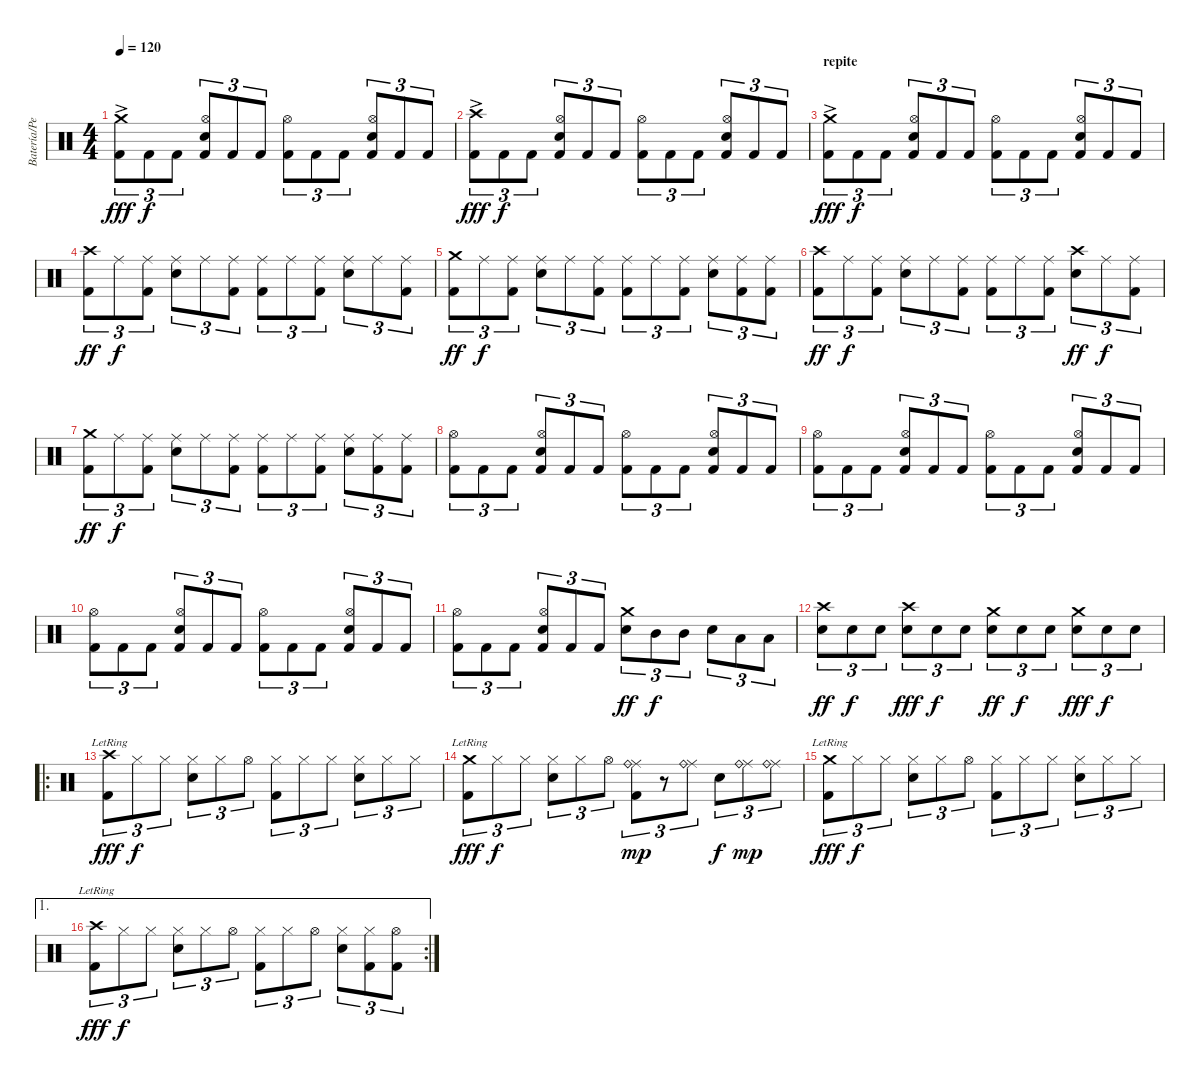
\track ("Batería/Perc." "Batería/Pe") {instrument percussion}
\staff {score}
\articulation defaults
\ts (4 4)
\tempo 120
\clef neutral
\ks c
("Crash medium (hit)"{ac} "Kick (hit) 2").8{tu (3 2) dy fff} "Kick (hit) 2".8{tu (3 2) dy f} "Kick (hit) 2".8{tu (3 2)} ("Hi-Hat (open)" "Kick (hit) 2" "Snare (hit) 2").8{tu (3 2)} "Kick (hit) 2".8{tu (3 2)} "Kick (hit) 2".8{tu (3 2)} ("Hi-Hat (open)" "Kick (hit) 2").8{tu (3 2)} "Kick (hit) 2".8{tu (3 2)} "Kick (hit) 2".8{tu (3 2)} ("Hi-Hat (open)" "Kick (hit) 2" "Snare (hit) 2").8{tu (3 2)} "Kick (hit) 2".8{tu (3 2)} "Kick (hit) 2".8{tu (3 2)} |
("Crash high (hit)"{ac} "Kick (hit) 2").8{tu (3 2) dy fff} "Kick (hit) 2".8{tu (3 2) dy f} "Kick (hit) 2".8{tu (3 2)} ("Hi-Hat (open)" "Kick (hit) 2" "Snare (hit) 2").8{tu (3 2)} "Kick (hit) 2".8{tu (3 2)} "Kick (hit) 2".8{tu (3 2)} ("Hi-Hat (open)" "Kick (hit) 2").8{tu (3 2)} "Kick (hit) 2".8{tu (3 2)} "Kick (hit) 2".8{tu (3 2)} ("Hi-Hat (open)" "Kick (hit) 2" "Snare (hit) 2").8{tu (3 2)} "Kick (hit) 2".8{tu (3 2)} "Kick (hit) 2".8{tu (3 2)} |
\section ("" "repite")
("Crash medium (hit)"{ac} "Kick (hit) 2").8{tu (3 2) dy fff} "Kick (hit) 2".8{tu (3 2) dy f} "Kick (hit) 2".8{tu (3 2)} ("Hi-Hat (open)" "Kick (hit) 2" "Snare (hit) 2").8{tu (3 2)} "Kick (hit) 2".8{tu (3 2)} "Kick (hit) 2".8{tu (3 2)} ("Hi-Hat (open)" "Kick (hit) 2").8{tu (3 2)} "Kick (hit) 2".8{tu (3 2)} "Kick (hit) 2".8{tu (3 2)} ("Hi-Hat (open)" "Kick (hit) 2" "Snare (hit) 2").8{tu (3 2)} "Kick (hit) 2".8{tu (3 2)} "Kick (hit) 2".8{tu (3 2)} |
("Crash high (hit)" "Kick (hit) 2").8{tu (3 2) dy ff} "Ride (middle)".8{tu (3 2) dy f} ("Ride (middle)" "Kick (hit) 2").8{tu (3 2)} ("Ride (middle)" "Snare (hit) 2").8{tu (3 2)} "Ride (middle)".8{tu (3 2)} ("Ride (middle)" "Kick (hit) 2").8{tu (3 2)} ("Ride (middle)" "Kick (hit) 2").8{tu (3 2)} "Ride (middle)".8{tu (3 2)} ("Ride (middle)" "Kick (hit) 2").8{tu (3 2)} ("Ride (middle)" "Snare (hit) 2").8{tu (3 2)} "Ride (middle)".8{tu (3 2)} ("Ride (middle)" "Kick (hit) 2").8{tu (3 2)} |
("Crash medium (hit)" "Kick (hit) 2").8{tu (3 2) dy ff} "Ride (middle)".8{tu (3 2) dy f} ("Ride (middle)" "Kick (hit) 2").8{tu (3 2)} ("Ride (middle)" "Snare (hit) 2").8{tu (3 2)} "Ride (middle)".8{tu (3 2)} ("Ride (middle)" "Kick (hit) 2").8{tu (3 2)} ("Ride (middle)" "Kick (hit) 2").8{tu (3 2)} "Ride (middle)".8{tu (3 2)} ("Ride (middle)" "Kick (hit) 2").8{tu (3 2)} ("Ride (middle)" "Snare (hit) 2").8{tu (3 2)} ("Ride (middle)" "Kick (hit) 2").8{tu (3 2)} ("Ride (middle)" "Kick (hit) 2").8{tu (3 2)} |
("Crash high (hit)" "Kick (hit) 2").8{tu (3 2) dy ff} "Ride (middle)".8{tu (3 2) dy f} ("Ride (middle)" "Kick (hit) 2").8{tu (3 2)} ("Ride (middle)" "Snare (hit) 2").8{tu (3 2)} "Ride (middle)".8{tu (3 2)} ("Ride (middle)" "Kick (hit) 2").8{tu (3 2)} ("Ride (middle)" "Kick (hit) 2").8{tu (3 2)} "Ride (middle)".8{tu (3 2)} ("Ride (middle)" "Kick (hit) 2").8{tu (3 2)} ("Crash high (hit)" "Snare (hit) 2").8{tu (3 2) dy ff} "Ride (middle)".8{tu (3 2) dy f} ("Ride (middle)" "Kick (hit) 2").8{tu (3 2)} |
("Crash medium (hit)" "Kick (hit) 2").8{tu (3 2) dy ff} "Ride (middle)".8{tu (3 2) dy f} ("Ride (middle)" "Kick (hit) 2").8{tu (3 2)} ("Ride (middle)" "Snare (hit) 2").8{tu (3 2)} "Ride (middle)".8{tu (3 2)} ("Ride (middle)" "Kick (hit) 2").8{tu (3 2)} ("Ride (middle)" "Kick (hit) 2").8{tu (3 2)} "Ride (middle)".8{tu (3 2)} ("Ride (middle)" "Kick (hit) 2").8{tu (3 2)} ("Ride (middle)" "Snare (hit) 2").8{tu (3 2)} ("Ride (middle)" "Kick (hit) 2").8{tu (3 2)} ("Ride (middle)" "Kick (hit) 2").8{tu (3 2)} |
("Hi-Hat (open)" "Kick (hit) 2").8{tu (3 2)} "Kick (hit) 2".8{tu (3 2)} "Kick (hit) 2".8{tu (3 2)} ("Hi-Hat (open)" "Kick (hit) 2" "Snare (hit) 2").8{tu (3 2)} "Kick (hit) 2".8{tu (3 2)} "Kick (hit) 2".8{tu (3 2)} ("Hi-Hat (open)" "Kick (hit) 2").8{tu (3 2)} "Kick (hit) 2".8{tu (3 2)} "Kick (hit) 2".8{tu (3 2)} ("Hi-Hat (open)" "Kick (hit) 2" "Snare (hit) 2").8{tu (3 2)} "Kick (hit) 2".8{tu (3 2)} "Kick (hit) 2".8{tu (3 2)} |
("Hi-Hat (open)" "Kick (hit) 2").8{tu (3 2)} "Kick (hit) 2".8{tu (3 2)} "Kick (hit) 2".8{tu (3 2)} ("Hi-Hat (open)" "Kick (hit) 2" "Snare (hit) 2").8{tu (3 2)} "Kick (hit) 2".8{tu (3 2)} "Kick (hit) 2".8{tu (3 2)} ("Hi-Hat (open)" "Kick (hit) 2").8{tu (3 2)} "Kick (hit) 2".8{tu (3 2)} "Kick (hit) 2".8{tu (3 2)} ("Hi-Hat (open)" "Kick (hit) 2" "Snare (hit) 2").8{tu (3 2)} "Kick (hit) 2".8{tu (3 2)} "Kick (hit) 2".8{tu (3 2)} |
("Hi-Hat (open)" "Kick (hit) 2").8{tu (3 2)} "Kick (hit) 2".8{tu (3 2)} "Kick (hit) 2".8{tu (3 2)} ("Hi-Hat (open)" "Kick (hit) 2" "Snare (hit) 2").8{tu (3 2)} "Kick (hit) 2".8{tu (3 2)} "Kick (hit) 2".8{tu (3 2)} ("Hi-Hat (open)" "Kick (hit) 2").8{tu (3 2)} "Kick (hit) 2".8{tu (3 2)} "Kick (hit) 2".8{tu (3 2)} ("Hi-Hat (open)" "Kick (hit) 2" "Snare (hit) 2").8{tu (3 2)} "Kick (hit) 2".8{tu (3 2)} "Kick (hit) 2".8{tu (3 2)} |
("Hi-Hat (open)" "Kick (hit) 2").8{tu (3 2)} "Kick (hit) 2".8{tu (3 2)} "Kick (hit) 2".8{tu (3 2)} ("Hi-Hat (open)" "Kick (hit) 2" "Snare (hit) 2").8{tu (3 2)} "Kick (hit) 2".8{tu (3 2)} "Kick (hit) 2".8{tu (3 2)} ("Crash medium (hit)" "Snare (hit) 2").8{tu (3 2) dy ff} "Mid Tom (hit)".8{tu (3 2) dy f} "Mid Tom (hit)".8{tu (3 2)} "Snare (hit) 2".8{tu (3 2)} "Low Tom (hit)".8{tu (3 2)} "Low Tom (hit)".8{tu (3 2)} |
("Crash high (hit)" "Snare (hit) 2").8{tu (3 2) dy ff} "Snare (hit) 2".8{tu (3 2) dy f} "Snare (hit) 2".8{tu (3 2)} ("Crash high (hit)" "Snare (hit) 2").8{tu (3 2) dy fff} "Snare (hit) 2".8{tu (3 2) dy f} "Snare (hit) 2".8{tu (3 2)} ("Crash medium (hit)" "Snare (hit) 2").8{tu (3 2) dy ff} "Snare (hit) 2".8{tu (3 2) dy f} "Snare (hit) 2".8{tu (3 2)} ("Crash medium (hit)" "Snare (hit) 2").8{tu (3 2) dy fff} "Snare (hit) 2".8{tu (3 2) dy f} "Snare (hit) 2".8{tu (3 2)} |
\ro
("Crash high (hit)"{lr} "Kick (hit) 2").8{tu (3 2) dy fff volume 14} "Hi-Hat (closed)".8{tu (3 2) dy f} "Hi-Hat (closed)".8{tu (3 2)} ("Hi-Hat (closed)" "Snare (hit) 2").8{tu (3 2)} "Hi-Hat (closed)".8{tu (3 2)} "Hi-Hat (open)".8{tu (3 2)} ("Hi-Hat (closed)" "Kick (hit) 2").8{tu (3 2)} "Hi-Hat (closed)".8{tu (3 2)} "Hi-Hat (closed)".8{tu (3 2)} ("Hi-Hat (closed)" "Snare (hit) 2").8{tu (3 2)} "Hi-Hat (closed)".8{tu (3 2)} "Hi-Hat (closed)".8{tu (3 2)} |
("Crash medium (hit)"{lr} "Kick (hit) 2").8{tu (3 2) dy fff volume 14} "Hi-Hat (closed)".8{tu (3 2) dy f} "Hi-Hat (closed)".8{tu (3 2)} ("Hi-Hat (closed)" "Snare (hit) 2").8{tu (3 2)} "Hi-Hat (closed)".8{tu (3 2)} "Hi-Hat (open)".8{tu (3 2)} ("Ride (middle)" "Ride (bell)" "Kick (hit) 2").8{tu (3 2) dy mp} r.8{tu (3 2)} ("Ride (middle)" "Ride (bell)").8{tu (3 2)} "Snare (hit) 2".8{tu (3 2) dy f} ("Ride (middle)" "Ride (bell)").8{tu (3 2) dy mp} ("Ride (middle)" "Ride (bell)").8{tu (3 2)} |
("Crash medium (hit)"{lr} "Kick (hit) 2").8{tu (3 2) dy fff volume 14} "Hi-Hat (closed)".8{tu (3 2) dy f} "Hi-Hat (closed)".8{tu (3 2)} ("Hi-Hat (closed)" "Snare (hit) 2").8{tu (3 2)} "Hi-Hat (closed)".8{tu (3 2)} "Hi-Hat (open)".8{tu (3 2)} ("Hi-Hat (closed)" "Kick (hit) 2").8{tu (3 2)} "Hi-Hat (closed)".8{tu (3 2)} "Hi-Hat (closed)".8{tu (3 2)} ("Hi-Hat (closed)" "Snare (hit) 2").8{tu (3 2)} "Hi-Hat (closed)".8{tu (3 2)} "Hi-Hat (closed)".8{tu (3 2)} |
\ae 1
\rc 2
("Crash high (hit)"{lr} "Kick (hit) 2").8{tu (3 2) dy fff volume 14} "Hi-Hat (closed)".8{tu (3 2) dy f} "Hi-Hat (closed)".8{tu (3 2)} ("Hi-Hat (closed)" "Snare (hit) 2").8{tu (3 2)} "Hi-Hat (closed)".8{tu (3 2)} "Hi-Hat (open)".8{tu (3 2)} ("Hi-Hat (closed)" "Kick (hit) 2").8{tu (3 2)} "Hi-Hat (closed)".8{tu (3 2)} "Hi-Hat (open)".8{tu (3 2)} ("Hi-Hat (closed)" "Snare (hit) 2").8{tu (3 2)} ("Hi-Hat (closed)" "Kick (hit) 2").8{tu (3 2)} ("Hi-Hat (open)" "Kick (hit) 2").8{tu (3 2)}
